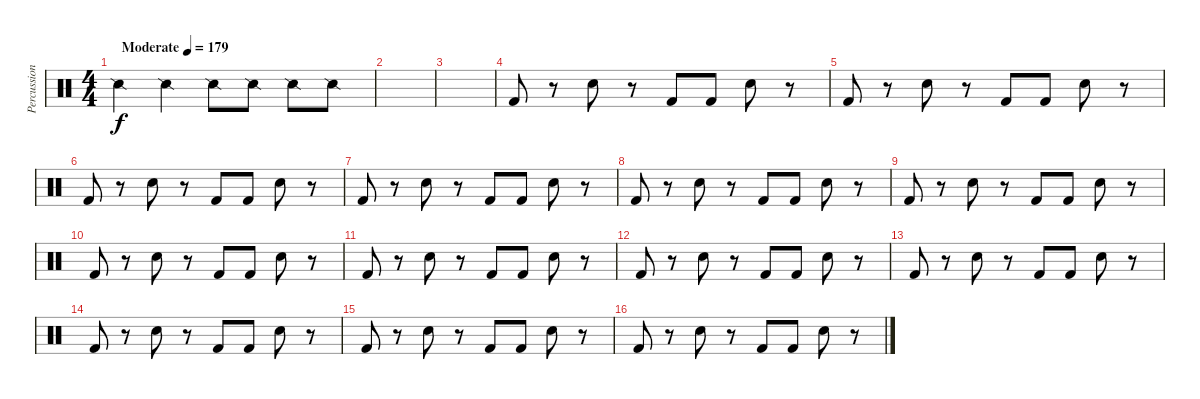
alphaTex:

\track ("Percussion" "Percussion") {instrument percussion}
\staff {score}
\articulation defaults
\ts (4 4)
\tempo (179 "Moderate")
\clef neutral
\ks c "Snare (side stick) 2".4{dy f} "Snare (side stick) 2".4 "Snare (side stick) 2".8 "Snare (side stick) 2".8 "Snare (side stick) 2".8 "Snare (side stick) 2".8
|
|
|
"Kick (hit) 2".8 r.8 "Snare (hit) 2".8 r.8 "Kick (hit) 2".8 "Kick (hit) 2".8 "Snare (hit) 2".8 r.8 |
"Kick (hit) 2".8 r.8 "Snare (hit) 2".8 r.8 "Kick (hit) 2".8 "Kick (hit) 2".8 "Snare (hit) 2".8 r.8 |
"Kick (hit) 2".8 r.8 "Snare (hit) 2".8 r.8 "Kick (hit) 2".8 "Kick (hit) 2".8 "Snare (hit) 2".8 r.8 |
"Kick (hit) 2".8 r.8 "Snare (hit) 2".8 r.8 "Kick (hit) 2".8 "Kick (hit) 2".8 "Snare (hit) 2".8 r.8 |
"Kick (hit) 2".8 r.8 "Snare (hit) 2".8 r.8 "Kick (hit) 2".8 "Kick (hit) 2".8 "Snare (hit) 2".8 r.8 |
"Kick (hit) 2".8 r.8 "Snare (hit) 2".8 r.8 "Kick (hit) 2".8 "Kick (hit) 2".8 "Snare (hit) 2".8 r.8 |
"Kick (hit) 2".8 r.8 "Snare (hit) 2".8 r.8 "Kick (hit) 2".8 "Kick (hit) 2".8 "Snare (hit) 2".8 r.8 |
"Kick (hit) 2".8 r.8 "Snare (hit) 2".8 r.8 "Kick (hit) 2".8 "Kick (hit) 2".8 "Snare (hit) 2".8 r.8 |
"Kick (hit) 2".8 r.8 "Snare (hit) 2".8 r.8 "Kick (hit) 2".8 "Kick (hit) 2".8 "Snare (hit) 2".8 r.8 |
"Kick (hit) 2".8 r.8 "Snare (hit) 2".8 r.8 "Kick (hit) 2".8 "Kick (hit) 2".8 "Snare (hit) 2".8 r.8 |
"Kick (hit) 2".8 r.8 "Snare (hit) 2".8 r.8 "Kick (hit) 2".8 "Kick (hit) 2".8 "Snare (hit) 2".8 r.8 |
"Kick (hit) 2".8 r.8 "Snare (hit) 2".8 r.8 "Kick (hit) 2".8 "Kick (hit) 2".8 "Snare (hit) 2".8 r.8 |
"Kick (hit) 2".8 r.8 "Snare (hit) 2".8 r.8 "Kick (hit) 2".8 "Kick (hit) 2".8 "Snare (hit) 2".8 r.8
